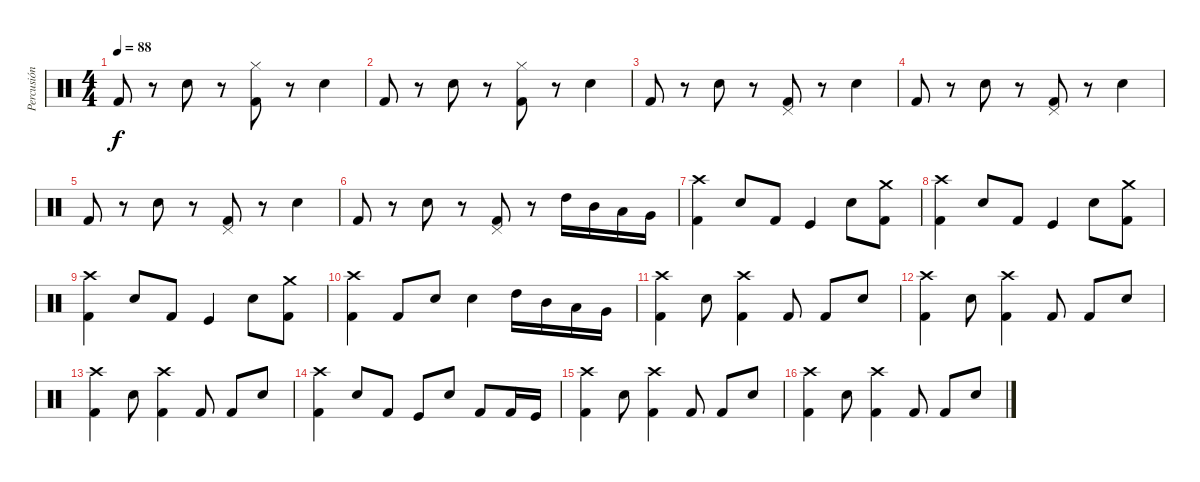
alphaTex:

\track ("Percusión" "Percusión") {instrument percussion}
\staff {score}
\articulation defaults
\ts (4 4)
\tempo 88
\clef neutral
\ks c "Kick (hit) 2".8{dy f}
r.8 "Snare (hit) 2".8 r.8 ("Hi-Hat (closed)" "Kick (hit) 2").8 r.8 "Snare (hit) 2".4 |
"Kick (hit) 2".8 r.8 "Snare (hit) 2".8 r.8 ("Hi-Hat (closed)" "Kick (hit) 2").8 r.8 "Snare (hit) 2".4 |
"Kick (hit) 2".8 r.8 "Snare (hit) 2".8 r.8 ("Pedal Hi-Hat (hit)" "Kick (hit) 2").8 r.8 "Snare (hit) 2".4 |
"Kick (hit) 2".8 r.8 "Snare (hit) 2".8 r.8 ("Pedal Hi-Hat (hit)" "Kick (hit) 2").8 r.8 "Snare (hit) 2".4 |
"Kick (hit) 2".8 r.8 "Snare (hit) 2".8 r.8 ("Pedal Hi-Hat (hit)" "Kick (hit) 2").8 r.8 "Snare (hit) 2".4 |
"Kick (hit) 2".8 r.8 "Snare (hit) 2".8 r.8 ("Pedal Hi-Hat (hit)" "Kick (hit) 2").8 r.8 "High Tom (hit)".16 "Mid Tom (hit)".16 "Low Tom (hit)".16 "Very Low Tom (hit)".16 |
("Crash high (hit)" "Kick (hit) 2").4 "Snare (hit) 2".8 "Kick (hit) 2".8 "Kick (hit)".4 "Snare (hit) 2".8 ("Crash medium (hit)" "Kick (hit) 2").8 |
("Crash high (hit)" "Kick (hit) 2").4 "Snare (hit) 2".8 "Kick (hit) 2".8 "Kick (hit)".4 "Snare (hit) 2".8 ("Crash medium (hit)" "Kick (hit) 2").8 |
("Crash high (hit)" "Kick (hit) 2").4 "Snare (hit) 2".8 "Kick (hit) 2".8 "Kick (hit)".4 "Snare (hit) 2".8 ("Crash medium (hit)" "Kick (hit) 2").8 |
("Crash high (hit)" "Kick (hit) 2").4 "Kick (hit) 2".8 "Snare (hit) 2".8 "Electric Snare (hit)".4 "High Tom (hit)".16 "Mid Tom (hit)".16 "Low Tom (hit)".16 "Very Low Tom (hit)".16 |
("Crash high (hit)" "Kick (hit) 2").4 "Snare (hit) 2".8 ("Crash high (hit)" "Kick (hit) 2").4 "Kick (hit) 2".8 "Kick (hit) 2".8 "Snare (hit) 2".8 |
("Crash high (hit)" "Kick (hit) 2").4 "Snare (hit) 2".8 ("Crash high (hit)" "Kick (hit) 2").4 "Kick (hit) 2".8 "Kick (hit) 2".8 "Snare (hit) 2".8 |
("Crash high (hit)" "Kick (hit) 2").4 "Snare (hit) 2".8 ("Crash high (hit)" "Kick (hit) 2").4 "Kick (hit) 2".8 "Kick (hit) 2".8 "Snare (hit) 2".8 |
("Crash high (hit)" "Kick (hit) 2").4 "Snare (hit) 2".8 "Kick (hit) 2".8 "Kick (hit)".8 "Snare (hit) 2".8 "Kick (hit) 2".8 "Kick (hit) 2".16 "Kick (hit)".16 |
("Crash high (hit)" "Kick (hit) 2").4 "Snare (hit) 2".8 ("Crash high (hit)" "Kick (hit) 2").4 "Kick (hit) 2".8 "Kick (hit) 2".8 "Snare (hit) 2".8 |
("Crash high (hit)" "Kick (hit) 2").4 "Snare (hit) 2".8 ("Crash high (hit)" "Kick (hit) 2").4 "Kick (hit) 2".8 "Kick (hit) 2".8 "Snare (hit) 2".8
